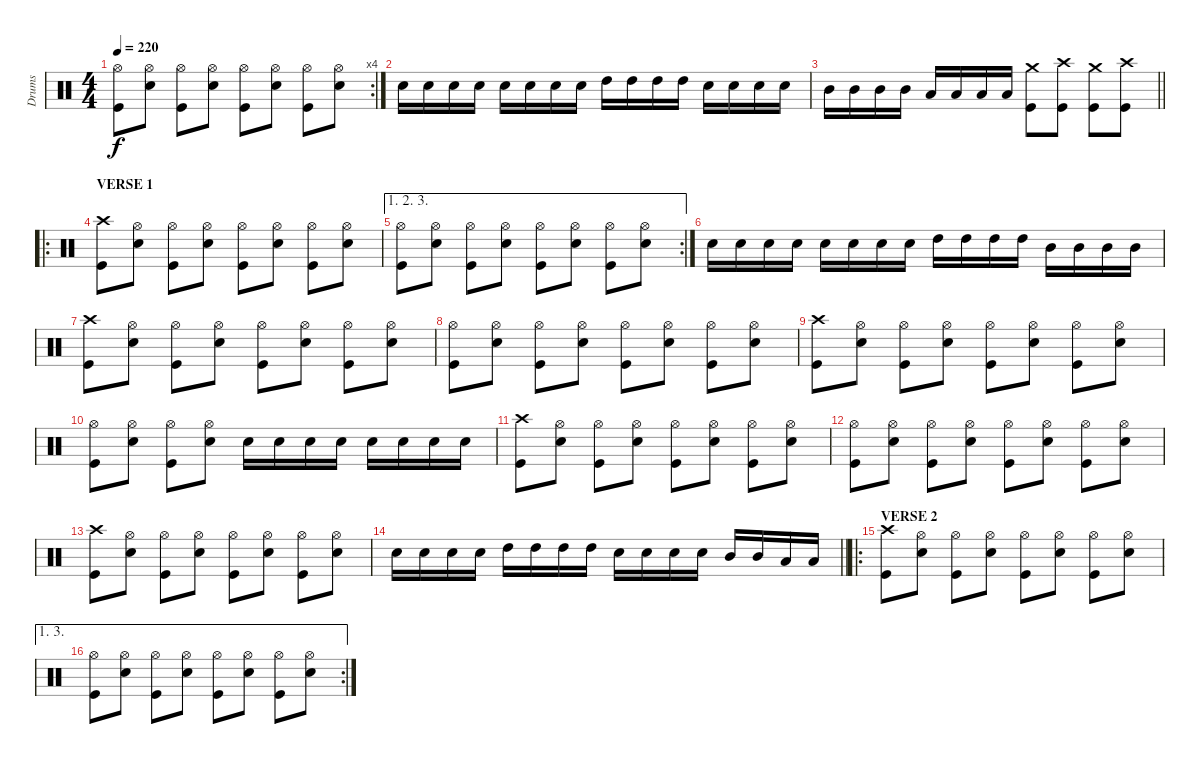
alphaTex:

\track ("Drums" "Drums") {instrument percussion}
\staff {score}
\articulation defaults
\rc 4
\ts (4 4)
\tempo 220
\clef neutral
\ks c
("Hi-Hat (open)" "Kick (hit)").8{dy f} ("Hi-Hat (open)" "Snare (hit) 2").8 ("Hi-Hat (open)" "Kick (hit)").8 ("Hi-Hat (open)" "Snare (hit) 2").8 ("Hi-Hat (open)" "Kick (hit)").8 ("Hi-Hat (open)" "Snare (hit) 2").8 ("Hi-Hat (open)" "Kick (hit)").8 ("Hi-Hat (open)" "Snare (hit) 2").8 |
"Snare (hit) 2".16 "Snare (hit) 2".16 "Snare (hit) 2".16 "Snare (hit) 2".16 "Snare (hit) 2".16 "Snare (hit) 2".16 "Snare (hit) 2".16 "Snare (hit) 2".16 "High Tom (hit)".16 "High Tom (hit)".16 "High Tom (hit)".16 "High Tom (hit)".16 "Snare (hit) 2".16 "Snare (hit) 2".16 "Snare (hit) 2".16 "Snare (hit) 2".16 |
\barLineRight lightlight "Mid Tom (hit)".16 "Mid Tom (hit)".16 "Mid Tom (hit)".16 "Mid Tom (hit)".16 "Low Tom (hit)".16 "Low Tom (hit)".16 "Low Tom (hit)".16 "Low Tom (hit)".16
("Crash medium (hit)" "Kick (hit)").8 ("Crash high (hit)" "Kick (hit)").8 ("Crash medium (hit)" "Kick (hit)").8 ("Crash high (hit)" "Kick (hit)").8 |
\ro
\section ("" "VERSE 1")
("Crash high (hit)" "Kick (hit)").8 ("Hi-Hat (open)" "Snare (hit) 2").8 ("Hi-Hat (open)" "Kick (hit)").8 ("Hi-Hat (open)" "Snare (hit) 2").8 ("Hi-Hat (open)" "Kick (hit)").8 ("Hi-Hat (open)" "Snare (hit) 2").8 ("Hi-Hat (open)" "Kick (hit)").8 ("Hi-Hat (open)" "Snare (hit) 2").8 |
\ae (1 2 3)
\rc 2
("Hi-Hat (open)" "Kick (hit)").8 ("Hi-Hat (open)" "Snare (hit) 2").8 ("Hi-Hat (open)" "Kick (hit)").8 ("Hi-Hat (open)" "Snare (hit) 2").8 ("Hi-Hat (open)" "Kick (hit)").8 ("Hi-Hat (open)" "Snare (hit) 2").8 ("Hi-Hat (open)" "Kick (hit)").8 ("Hi-Hat (open)" "Snare (hit) 2").8 |
"Snare (hit) 2".16 "Snare (hit) 2".16 "Snare (hit) 2".16 "Snare (hit) 2".16 "Snare (hit) 2".16 "Snare (hit) 2".16 "Snare (hit) 2".16 "Snare (hit) 2".16 "High Tom (hit)".16 "High Tom (hit)".16 "High Tom (hit)".16 "High Tom (hit)".16 "Mid Tom (hit)".16 "Mid Tom (hit)".16 "Mid Tom (hit)".16 "Mid Tom (hit)".16 |
("Crash high (hit)" "Kick (hit)").8 ("Hi-Hat (open)" "Snare (hit) 2").8 ("Hi-Hat (open)" "Kick (hit)").8 ("Hi-Hat (open)" "Snare (hit) 2").8 ("Hi-Hat (open)" "Kick (hit)").8 ("Hi-Hat (open)" "Snare (hit) 2").8 ("Hi-Hat (open)" "Kick (hit)").8 ("Hi-Hat (open)" "Snare (hit) 2").8 |
("Hi-Hat (open)" "Kick (hit)").8 ("Hi-Hat (open)" "Snare (hit) 2").8 ("Hi-Hat (open)" "Kick (hit)").8 ("Hi-Hat (open)" "Snare (hit) 2").8 ("Hi-Hat (open)" "Kick (hit)").8 ("Hi-Hat (open)" "Snare (hit) 2").8 ("Hi-Hat (open)" "Kick (hit)").8 ("Hi-Hat (open)" "Snare (hit) 2").8 |
("Crash high (hit)" "Kick (hit)").8 ("Hi-Hat (open)" "Snare (hit) 2").8 ("Hi-Hat (open)" "Kick (hit)").8 ("Hi-Hat (open)" "Snare (hit) 2").8 ("Hi-Hat (open)" "Kick (hit)").8 ("Hi-Hat (open)" "Snare (hit) 2").8 ("Hi-Hat (open)" "Kick (hit)").8 ("Hi-Hat (open)" "Snare (hit) 2").8 |
("Hi-Hat (open)" "Kick (hit)").8 ("Hi-Hat (open)" "Snare (hit) 2").8 ("Hi-Hat (open)" "Kick (hit)").8 ("Hi-Hat (open)" "Snare (hit) 2").8 "Snare (hit) 2".16 "Snare (hit) 2".16 "Snare (hit) 2".16 "Snare (hit) 2".16 "Snare (hit) 2".16 "Snare (hit) 2".16 "Snare (hit) 2".16 "Snare (hit) 2".16 |
("Crash high (hit)" "Kick (hit)").8 ("Hi-Hat (open)" "Snare (hit) 2").8 ("Hi-Hat (open)" "Kick (hit)").8 ("Hi-Hat (open)" "Snare (hit) 2").8 ("Hi-Hat (open)" "Kick (hit)").8 ("Hi-Hat (open)" "Snare (hit) 2").8 ("Hi-Hat (open)" "Kick (hit)").8 ("Hi-Hat (open)" "Snare (hit) 2").8 |
("Hi-Hat (open)" "Kick (hit)").8 ("Hi-Hat (open)" "Snare (hit) 2").8 ("Hi-Hat (open)" "Kick (hit)").8 ("Hi-Hat (open)" "Snare (hit) 2").8 ("Hi-Hat (open)" "Kick (hit)").8 ("Hi-Hat (open)" "Snare (hit) 2").8 ("Hi-Hat (open)" "Kick (hit)").8 ("Hi-Hat (open)" "Snare (hit) 2").8 |
("Crash high (hit)" "Kick (hit)").8 ("Hi-Hat (open)" "Snare (hit) 2").8 ("Hi-Hat (open)" "Kick (hit)").8 ("Hi-Hat (open)" "Snare (hit) 2").8 ("Hi-Hat (open)" "Kick (hit)").8 ("Hi-Hat (open)" "Snare (hit) 2").8 ("Hi-Hat (open)" "Kick (hit)").8 ("Hi-Hat (open)" "Snare (hit) 2").8 |
\barLineRight lightlight "Snare (hit) 2".16 "Snare (hit) 2".16 "Snare (hit) 2".16 "Snare (hit) 2".16 "High Tom (hit)".16 "High Tom (hit)".16 "High Tom (hit)".16 "High Tom (hit)".16 "Snare (hit) 2".16 "Snare (hit) 2".16 "Snare (hit) 2".16 "Snare (hit) 2".16 "Mid Tom (hit)".16 "Mid Tom (hit)".16 "Low Tom (hit)".16 "Low Tom (hit)".16
|
\ro
\section ("" "VERSE 2")
("Crash high (hit)" "Kick (hit)").8 ("Hi-Hat (open)" "Snare (hit) 2").8 ("Hi-Hat (open)" "Kick (hit)").8 ("Hi-Hat (open)" "Snare (hit) 2").8 ("Hi-Hat (open)" "Kick (hit)").8 ("Hi-Hat (open)" "Snare (hit) 2").8 ("Hi-Hat (open)" "Kick (hit)").8 ("Hi-Hat (open)" "Snare (hit) 2").8 |
\ae (1 3)
\rc 2
("Hi-Hat (open)" "Kick (hit)").8 ("Hi-Hat (open)" "Snare (hit) 2").8 ("Hi-Hat (open)" "Kick (hit)").8 ("Hi-Hat (open)" "Snare (hit) 2").8 ("Hi-Hat (open)" "Kick (hit)").8 ("Hi-Hat (open)" "Snare (hit) 2").8 ("Hi-Hat (open)" "Kick (hit)").8 ("Hi-Hat (open)" "Snare (hit) 2").8
